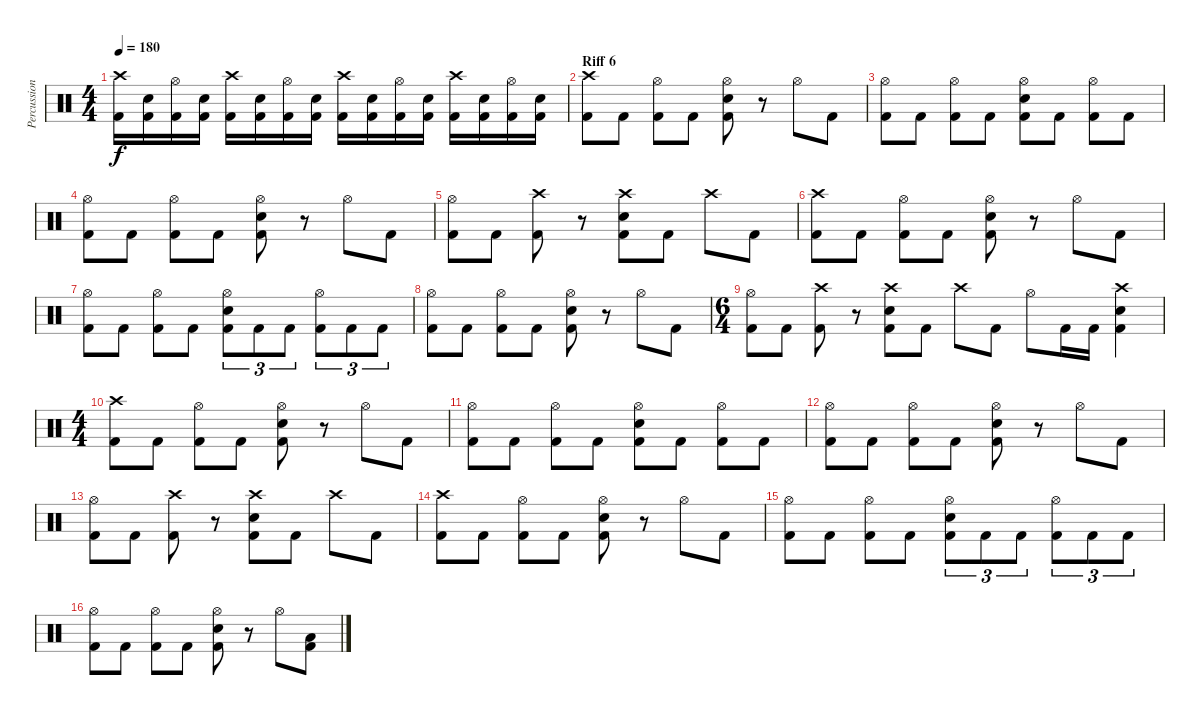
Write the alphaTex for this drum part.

\track ("Percussion" "Percussion") {instrument percussion}
\staff {score}
\articulation defaults
\ts (4 4)
\tempo 180
\clef neutral
\ks c
("Crash high (hit)" "Kick (hit) 2").16{dy f} ("Electric Snare (hit)" "Kick (hit) 2").16 ("Hi-Hat (open)" "Kick (hit) 2").16 ("Electric Snare (hit)" "Kick (hit) 2").16 ("Crash high (hit)" "Kick (hit) 2").16 ("Electric Snare (hit)" "Kick (hit) 2").16 ("Hi-Hat (open)" "Kick (hit) 2").16 ("Electric Snare (hit)" "Kick (hit) 2").16 ("Crash high (hit)" "Kick (hit) 2").16 ("Electric Snare (hit)" "Kick (hit) 2").16 ("Hi-Hat (open)" "Kick (hit) 2").16 ("Electric Snare (hit)" "Kick (hit) 2").16 ("Crash high (hit)" "Kick (hit) 2").16 ("Electric Snare (hit)" "Kick (hit) 2").16 ("Hi-Hat (open)" "Kick (hit) 2").16 ("Electric Snare (hit)" "Kick (hit) 2").16 |
\section ("" "Riff 6")
("Crash high (hit)" "Kick (hit) 2").8 "Kick (hit) 2".8 ("Hi-Hat (open)" "Kick (hit) 2").8 "Kick (hit) 2".8 ("Hi-Hat (open)" "Electric Snare (hit)" "Kick (hit) 2").8 r.8 "Hi-Hat (open)".8 "Kick (hit) 2".8 |
("Hi-Hat (open)" "Kick (hit) 2").8 "Kick (hit) 2".8 ("Hi-Hat (open)" "Kick (hit) 2").8 "Kick (hit) 2".8 ("Hi-Hat (open)" "Electric Snare (hit)" "Kick (hit) 2").8 "Kick (hit) 2".8 ("Hi-Hat (open)" "Kick (hit) 2").8 "Kick (hit) 2".8 |
("Hi-Hat (open)" "Kick (hit) 2").8 "Kick (hit) 2".8 ("Hi-Hat (open)" "Kick (hit) 2").8 "Kick (hit) 2".8 ("Hi-Hat (open)" "Electric Snare (hit)" "Kick (hit) 2").8 r.8 "Hi-Hat (open)".8 "Kick (hit) 2".8 |
("Hi-Hat (open)" "Kick (hit) 2").8 "Kick (hit) 2".8 ("Crash high (hit)" "Kick (hit) 2").8 r.8 ("Crash high (hit)" "Electric Snare (hit)" "Kick (hit) 2").8 "Kick (hit) 2".8 "Crash high (hit)".8 "Kick (hit) 2".8 |
("Crash high (hit)" "Kick (hit) 2").8 "Kick (hit) 2".8 ("Hi-Hat (open)" "Kick (hit) 2").8 "Kick (hit) 2".8 ("Hi-Hat (open)" "Electric Snare (hit)" "Kick (hit) 2").8 r.8 "Hi-Hat (open)".8 "Kick (hit) 2".8 |
("Hi-Hat (open)" "Kick (hit) 2").8 "Kick (hit) 2".8 ("Hi-Hat (open)" "Kick (hit) 2").8 "Kick (hit) 2".8 ("Hi-Hat (open)" "Electric Snare (hit)" "Kick (hit) 2").8{tu (3 2)} "Kick (hit) 2".8{tu (3 2)} "Kick (hit) 2".8{tu (3 2)} ("Hi-Hat (open)" "Kick (hit) 2").8{tu (3 2)} "Kick (hit) 2".8{tu (3 2)} "Kick (hit) 2".8{tu (3 2)} |
("Hi-Hat (open)" "Kick (hit) 2").8 "Kick (hit) 2".8 ("Hi-Hat (open)" "Kick (hit) 2").8 "Kick (hit) 2".8 ("Hi-Hat (open)" "Electric Snare (hit)" "Kick (hit) 2").8 r.8 "Hi-Hat (open)".8 "Kick (hit) 2".8 |
\ts (6 4)
("Hi-Hat (open)" "Kick (hit) 2").8 "Kick (hit) 2".8 ("Crash high (hit)" "Kick (hit) 2").8 r.8 ("Crash high (hit)" "Electric Snare (hit)" "Kick (hit) 2").8 "Kick (hit) 2".8 "Crash high (hit)".8 "Kick (hit) 2".8 "Hi-Hat (open)".8 "Kick (hit) 2".16 "Kick (hit) 2".16 ("Crash high (hit)" "Electric Snare (hit)" "Kick (hit) 2").4 |
\ts (4 4)
("Crash high (hit)" "Kick (hit) 2").8 "Kick (hit) 2".8 ("Hi-Hat (open)" "Kick (hit) 2").8 "Kick (hit) 2".8 ("Hi-Hat (open)" "Electric Snare (hit)" "Kick (hit) 2").8 r.8 "Hi-Hat (open)".8 "Kick (hit) 2".8 |
("Hi-Hat (open)" "Kick (hit) 2").8 "Kick (hit) 2".8 ("Hi-Hat (open)" "Kick (hit) 2").8 "Kick (hit) 2".8 ("Hi-Hat (open)" "Electric Snare (hit)" "Kick (hit) 2").8 "Kick (hit) 2".8 ("Hi-Hat (open)" "Kick (hit) 2").8 "Kick (hit) 2".8 |
("Hi-Hat (open)" "Kick (hit) 2").8 "Kick (hit) 2".8 ("Hi-Hat (open)" "Kick (hit) 2").8 "Kick (hit) 2".8 ("Hi-Hat (open)" "Electric Snare (hit)" "Kick (hit) 2").8 r.8 "Hi-Hat (open)".8 "Kick (hit) 2".8 |
("Hi-Hat (open)" "Kick (hit) 2").8 "Kick (hit) 2".8 ("Crash high (hit)" "Kick (hit) 2").8 r.8 ("Crash high (hit)" "Electric Snare (hit)" "Kick (hit) 2").8 "Kick (hit) 2".8 "Crash high (hit)".8 "Kick (hit) 2".8 |
("Crash high (hit)" "Kick (hit) 2").8 "Kick (hit) 2".8 ("Hi-Hat (open)" "Kick (hit) 2").8 "Kick (hit) 2".8 ("Hi-Hat (open)" "Electric Snare (hit)" "Kick (hit) 2").8 r.8 "Hi-Hat (open)".8 "Kick (hit) 2".8 |
("Hi-Hat (open)" "Kick (hit) 2").8 "Kick (hit) 2".8 ("Hi-Hat (open)" "Kick (hit) 2").8 "Kick (hit) 2".8 ("Hi-Hat (open)" "Electric Snare (hit)" "Kick (hit) 2").8{tu (3 2)} "Kick (hit) 2".8{tu (3 2)} "Kick (hit) 2".8{tu (3 2)} ("Hi-Hat (open)" "Kick (hit) 2").8{tu (3 2)} "Kick (hit) 2".8{tu (3 2)} "Kick (hit) 2".8{tu (3 2)} |
("Hi-Hat (open)" "Kick (hit) 2").8 "Kick (hit) 2".8 ("Hi-Hat (open)" "Kick (hit) 2").8 "Kick (hit) 2".8 ("Hi-Hat (open)" "Electric Snare (hit)" "Kick (hit) 2").8 r.8 "Hi-Hat (open)".8 ("Low Floor Tom (hit)" "Kick (hit) 2").8
